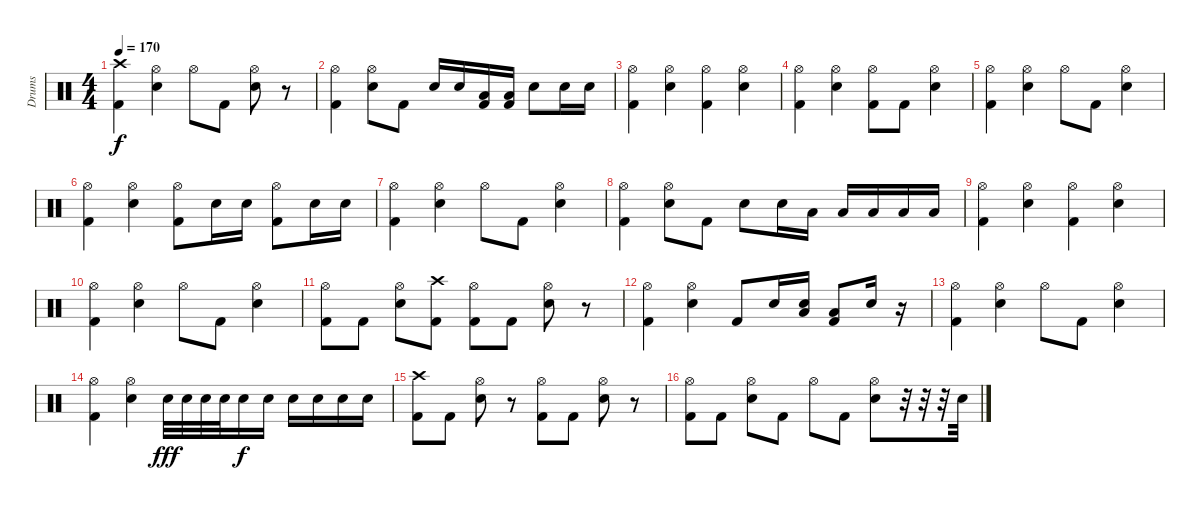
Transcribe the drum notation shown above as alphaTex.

\track ("Drums" "Drums") {instrument percussion}
\staff {score}
\articulation defaults
\ts (4 4)
\tempo 170
\clef neutral
\ks c
("Crash high (hit)" "Kick (hit) 2").4{dy f} ("Hi-Hat (open)" "Snare (hit) 2").4 "Hi-Hat (open)".8 "Kick (hit) 2".8 ("Hi-Hat (open)" "Snare (hit) 2").8 r.8 |
("Hi-Hat (open)" "Kick (hit) 2").4 ("Hi-Hat (open)" "Snare (hit) 2").8 "Kick (hit) 2".8 "Snare (hit) 2".16 "Snare (hit) 2".16 ("Low Floor Tom (hit)" "Kick (hit) 2").16 ("Low Floor Tom (hit)" "Kick (hit) 2").16 "Snare (hit) 2".8 "Snare (hit) 2".16 "Snare (hit) 2".16 |
("Hi-Hat (open)" "Kick (hit) 2").4 ("Hi-Hat (open)" "Snare (hit) 2").4 ("Hi-Hat (open)" "Kick (hit) 2").4 ("Hi-Hat (open)" "Snare (hit) 2").4 |
("Hi-Hat (open)" "Kick (hit) 2").4 ("Hi-Hat (open)" "Snare (hit) 2").4 ("Hi-Hat (open)" "Kick (hit) 2").8 "Kick (hit) 2".8 ("Hi-Hat (open)" "Snare (hit) 2").4 |
("Hi-Hat (open)" "Kick (hit) 2").4 ("Hi-Hat (open)" "Snare (hit) 2").4 "Hi-Hat (open)".8 "Kick (hit) 2".8 ("Hi-Hat (open)" "Snare (hit) 2").4 |
("Hi-Hat (open)" "Kick (hit) 2").4 ("Hi-Hat (open)" "Snare (hit) 2").4 ("Hi-Hat (open)" "Kick (hit) 2").8 "Snare (hit) 2".16 "Snare (hit) 2".16 ("Hi-Hat (open)" "Kick (hit) 2").8 "Snare (hit) 2".16 "Snare (hit) 2".16 |
("Hi-Hat (open)" "Kick (hit) 2").4 ("Hi-Hat (open)" "Snare (hit) 2").4 "Hi-Hat (open)".8 "Kick (hit) 2".8 ("Hi-Hat (open)" "Snare (hit) 2").4 |
("Hi-Hat (open)" "Kick (hit) 2").4 ("Hi-Hat (open)" "Snare (hit) 2").8 "Kick (hit) 2".8 "Snare (hit) 2".8 "Snare (hit) 2".16 "Low Tom (hit)".16 "Low Tom (hit)".16 "Low Floor Tom (hit)".16 "Low Floor Tom (hit)".16 "Low Floor Tom (hit)".16 |
("Hi-Hat (open)" "Kick (hit) 2").4 ("Hi-Hat (open)" "Snare (hit) 2").4 ("Hi-Hat (open)" "Kick (hit) 2").4 ("Hi-Hat (open)" "Snare (hit) 2").4 |
("Hi-Hat (open)" "Kick (hit) 2").4 ("Hi-Hat (open)" "Snare (hit) 2").4 "Hi-Hat (open)".8 "Kick (hit) 2".8 ("Hi-Hat (open)" "Snare (hit) 2").4 |
("Hi-Hat (open)" "Kick (hit) 2").8 "Kick (hit) 2".8 ("Hi-Hat (open)" "Snare (hit) 2").8 ("Crash high (hit)" "Kick (hit) 2").8 ("Hi-Hat (open)" "Kick (hit) 2").8 "Kick (hit) 2".8 ("Hi-Hat (open)" "Snare (hit) 2").8 r.8 |
("Hi-Hat (open)" "Kick (hit) 2").4 ("Hi-Hat (open)" "Snare (hit) 2").4 "Kick (hit) 2".8 "Snare (hit) 2".16 ("Snare (hit) 2" "Low Floor Tom (hit)").16 ("Low Floor Tom (hit)" "Kick (hit) 2").8 "Snare (hit) 2".16 r.16 |
("Hi-Hat (open)" "Kick (hit) 2").4 ("Hi-Hat (open)" "Snare (hit) 2").4 "Hi-Hat (open)".8 "Kick (hit) 2".8 ("Hi-Hat (open)" "Snare (hit) 2").4 |
("Hi-Hat (open)" "Kick (hit) 2").4 ("Hi-Hat (open)" "Snare (hit) 2").4 "Snare (hit) 2".32{dy fff} "Snare (hit) 2".32 "Snare (hit) 2".32 "Snare (hit) 2".32 "Snare (hit) 2".16{dy f} "Snare (hit) 2".16 "Snare (hit) 2".16 "Snare (hit) 2".16 "Snare (hit) 2".16 "Snare (hit) 2".16 |
("Crash high (hit)" "Kick (hit) 2").8 "Kick (hit) 2".8 ("Hi-Hat (open)" "Snare (hit) 2").8 r.8 ("Hi-Hat (open)" "Kick (hit) 2").8 "Kick (hit) 2".8 ("Hi-Hat (open)" "Snare (hit) 2").8 r.8 |
("Hi-Hat (open)" "Kick (hit) 2").8 "Kick (hit) 2".8 ("Hi-Hat (open)" "Snare (hit) 2").8 "Kick (hit) 2".8 "Hi-Hat (open)".8 "Kick (hit) 2".8 ("Hi-Hat (open)" "Snare (hit) 2").8 r.32 r.32 r.32 "Snare (hit) 2".32
